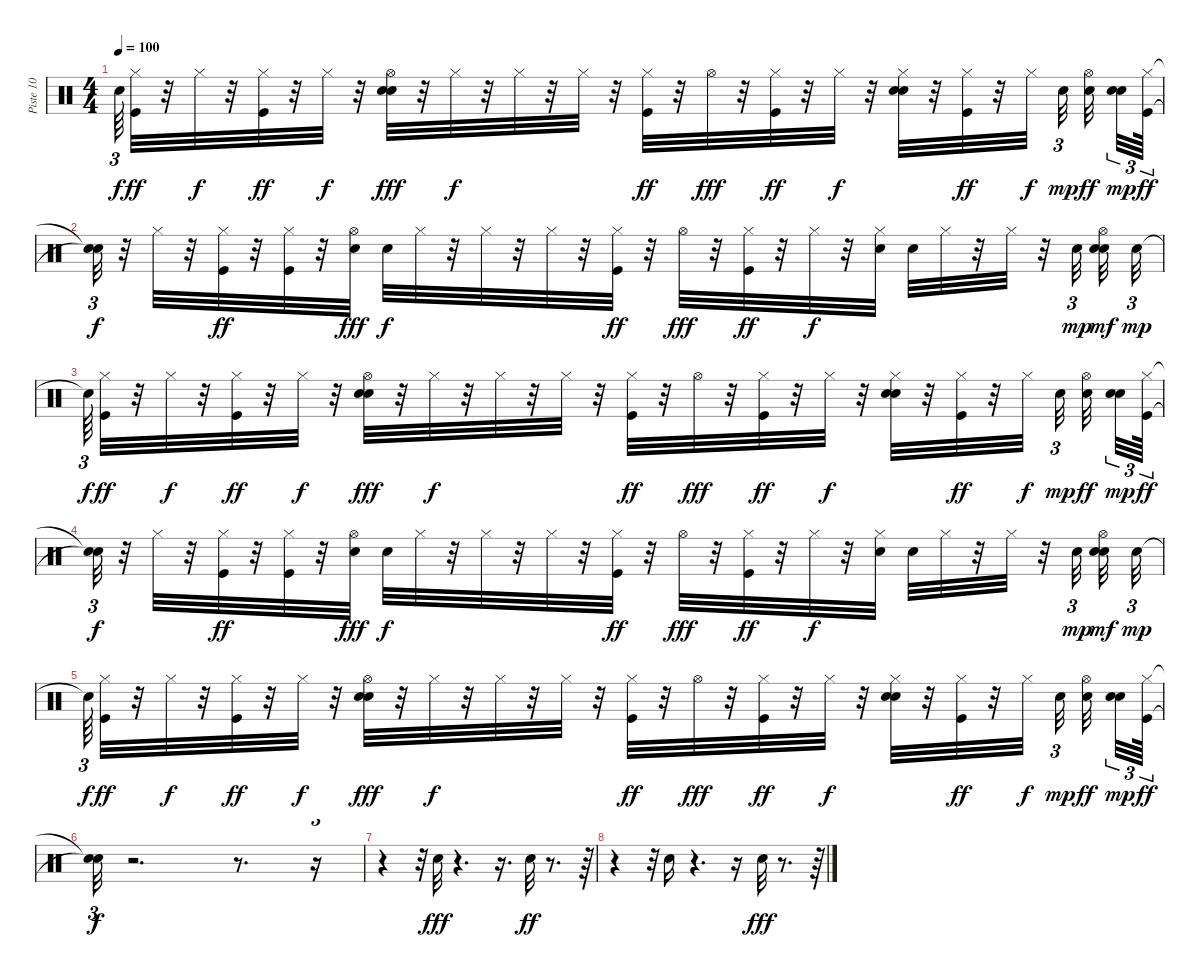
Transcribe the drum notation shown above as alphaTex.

\track ("Piste 10" "Piste 10") {instrument percussion}
\staff {score}
\articulation defaults
\ts (4 4)
\tempo 100
\clef neutral
\ks c "Snare (hit)"{t}.64{tu (3 2) dy f}
("Kick (hit)" "Hi-Hat (closed)").32{dy ff} r.32 "Hi-Hat (closed)".32{dy f} r.32 ("Hi-Hat (closed)" "Kick (hit)").32{dy ff} r.32 "Hi-Hat (closed)".32{dy f} r.32 ("Hi-Hat (open)" "Electric Snare (hit)" "Hand Clap (hit)").32{dy fff} r.32 "Hi-Hat (closed)".32{dy f} r.32 "Hi-Hat (closed)".32 r.32 "Hi-Hat (closed)".32 r.32 ("Hi-Hat (closed)" "Kick (hit)").32{dy ff} r.32 "Hi-Hat (open)".32{dy fff} r.32 ("Hi-Hat (closed)" "Kick (hit)").32{dy ff} r.32 "Hi-Hat (closed)".32{dy f} r.32 ("Hi-Hat (closed)" "Electric Snare (hit)" "Hand Clap (hit)").32 r.32 ("Hi-Hat (closed)" "Kick (hit)").32{dy ff} r.32 "Hi-Hat (closed)".32{dy f} "Electric Snare (hit)".32{tu (3 2) dy mp} ("Electric Snare (hit)" "Hi-Hat (open)").32{dy ff} ("Electric Snare (hit)" "Electric Snare (hit)").32{tu (3 2) dy mp} ("Hi-Hat (closed)" "Kick (hit)").64{tu (3 2) dy ff} |
("Snare (hit)"{t} "Snare (hit)"{t}).32{tu (3 2) dy f} r.32 "Hi-Hat (closed)".32 r.32 ("Hi-Hat (closed)" "Kick (hit)").32{dy ff} r.32 ("Hi-Hat (closed)" "Kick (hit)").32 r.32 ("Hi-Hat (open)" "Electric Snare (hit)").32{dy fff} "Hand Clap (hit)".32{dy f} "Hi-Hat (closed)".32 r.32 "Hi-Hat (closed)".32 r.32 "Hi-Hat (closed)".32 r.32 ("Hi-Hat (closed)" "Kick (hit)").32{dy ff} r.32 "Hi-Hat (open)".32{dy fff} r.32 ("Hi-Hat (closed)" "Kick (hit)").32{dy ff} r.32 "Hi-Hat (closed)".32{dy f} r.32 ("Hi-Hat (closed)" "Electric Snare (hit)").32 "Hand Clap (hit)".32 "Hi-Hat (closed)".32 r.32 "Hi-Hat (closed)".32 r.32 "Electric Snare (hit)".32{tu (3 2) dy mp} ("Electric Snare (hit)" "Hi-Hat (open)" "Electric Snare (hit)").32{dy mf} "Electric Snare (hit)".32{tu (3 2) dy mp} |
"Snare (hit)"{t}.64{tu (3 2) dy f} ("Kick (hit)" "Hi-Hat (closed)").32{dy ff} r.32 "Hi-Hat (closed)".32{dy f} r.32 ("Hi-Hat (closed)" "Kick (hit)").32{dy ff} r.32 "Hi-Hat (closed)".32{dy f} r.32 ("Hi-Hat (open)" "Electric Snare (hit)" "Hand Clap (hit)").32{dy fff} r.32 "Hi-Hat (closed)".32{dy f} r.32 "Hi-Hat (closed)".32 r.32 "Hi-Hat (closed)".32 r.32 ("Hi-Hat (closed)" "Kick (hit)").32{dy ff} r.32 "Hi-Hat (open)".32{dy fff} r.32 ("Hi-Hat (closed)" "Kick (hit)").32{dy ff} r.32 "Hi-Hat (closed)".32{dy f} r.32 ("Hi-Hat (closed)" "Electric Snare (hit)" "Hand Clap (hit)").32 r.32 ("Hi-Hat (closed)" "Kick (hit)").32{dy ff} r.32 "Hi-Hat (closed)".32{dy f} "Electric Snare (hit)".32{tu (3 2) dy mp} ("Electric Snare (hit)" "Hi-Hat (open)").32{dy ff} ("Electric Snare (hit)" "Electric Snare (hit)").32{tu (3 2) dy mp} ("Hi-Hat (closed)" "Kick (hit)").64{tu (3 2) dy ff} |
("Snare (hit)"{t} "Snare (hit)"{t}).32{tu (3 2) dy f} r.32 "Hi-Hat (closed)".32 r.32 ("Hi-Hat (closed)" "Kick (hit)").32{dy ff} r.32 ("Hi-Hat (closed)" "Kick (hit)").32 r.32 ("Hi-Hat (open)" "Electric Snare (hit)").32{dy fff} "Hand Clap (hit)".32{dy f} "Hi-Hat (closed)".32 r.32 "Hi-Hat (closed)".32 r.32 "Hi-Hat (closed)".32 r.32 ("Hi-Hat (closed)" "Kick (hit)").32{dy ff} r.32 "Hi-Hat (open)".32{dy fff} r.32 ("Hi-Hat (closed)" "Kick (hit)").32{dy ff} r.32 "Hi-Hat (closed)".32{dy f} r.32 ("Hi-Hat (closed)" "Electric Snare (hit)").32 "Hand Clap (hit)".32 "Hi-Hat (closed)".32 r.32 "Hi-Hat (closed)".32 r.32 "Electric Snare (hit)".32{tu (3 2) dy mp} ("Electric Snare (hit)" "Hi-Hat (open)" "Electric Snare (hit)").32{dy mf} "Electric Snare (hit)".32{tu (3 2) dy mp} |
"Snare (hit)"{t}.64{tu (3 2) dy f} ("Kick (hit)" "Hi-Hat (closed)").32{dy ff} r.32 "Hi-Hat (closed)".32{dy f} r.32 ("Hi-Hat (closed)" "Kick (hit)").32{dy ff} r.32 "Hi-Hat (closed)".32{dy f} r.32 ("Hi-Hat (open)" "Electric Snare (hit)" "Hand Clap (hit)").32{dy fff} r.32 "Hi-Hat (closed)".32{dy f} r.32 "Hi-Hat (closed)".32 r.32 "Hi-Hat (closed)".32 r.32 ("Hi-Hat (closed)" "Kick (hit)").32{dy ff} r.32 "Hi-Hat (open)".32{dy fff} r.32 ("Hi-Hat (closed)" "Kick (hit)").32{dy ff} r.32 "Hi-Hat (closed)".32{dy f} r.32 ("Hi-Hat (closed)" "Electric Snare (hit)" "Hand Clap (hit)").32 r.32 ("Hi-Hat (closed)" "Kick (hit)").32{dy ff} r.32 "Hi-Hat (closed)".32{dy f} "Electric Snare (hit)".32{tu (3 2) dy mp} ("Electric Snare (hit)" "Hi-Hat (open)").32{dy ff} ("Electric Snare (hit)" "Electric Snare (hit)").32{tu (3 2) dy mp} ("Hi-Hat (closed)" "Kick (hit)").64{tu (3 2) dy ff} |
("Snare (hit)"{t} "Snare (hit)"{t}).32{tu (3 2) dy f} r.2{d} r.8{d} r.16{tu (3 2)} |
r.4 r.32{tu (3 2)} "Hand Clap (hit)".32{dy fff} r.4{d} r.16{d} "Hand Clap (hit)".32{dy ff} r.8{d} r.64{tu (3 2)} |
r.4 r.32{tu (3 2)} "Hand Clap (hit)".16 r.4{d} r.16 "Hand Clap (hit)".32{dy fff} r.8{d} r.64{tu (3 2)}
